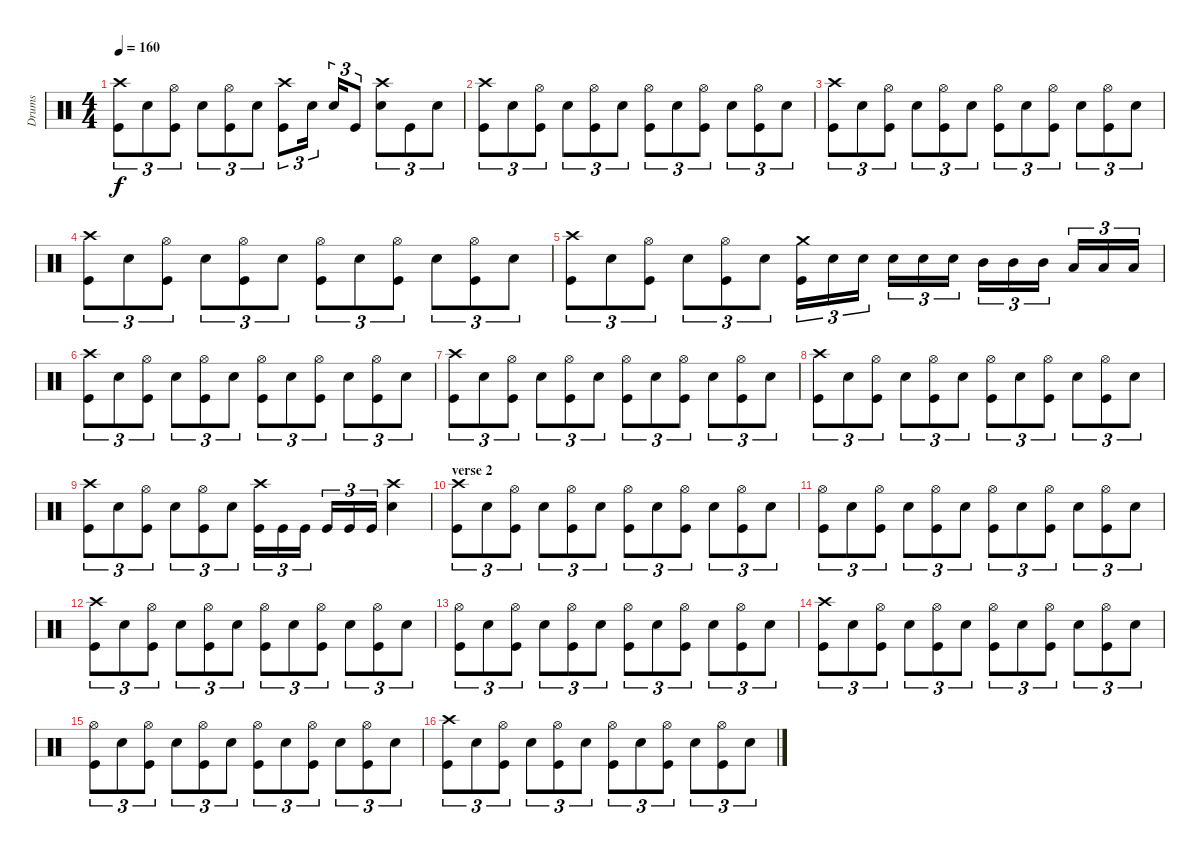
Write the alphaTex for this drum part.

\track ("Drums" "Drums") {instrument percussion}
\staff {score}
\articulation defaults
\ts (4 4)
\tempo 160
\clef neutral
\ks c
("Crash high (hit)" "Kick (hit)").8{tu (3 2) dy f} "Electric Snare (hit)".8{tu (3 2)} ("Hi-Hat (open)" "Kick (hit)").8{tu (3 2)} "Electric Snare (hit)".8{tu (3 2)} ("Hi-Hat (open)" "Kick (hit)").8{tu (3 2)} "Electric Snare (hit)".8{tu (3 2)} ("Crash high (hit)" "Kick (hit)").8{tu (3 2)} "Electric Snare (hit)".16{tu (3 2)} "Electric Snare (hit)".16{tu (3 2)} "Kick (hit)".8{tu (3 2)} ("Crash high (hit)" "Electric Snare (hit)").8{tu (3 2)} "Kick (hit)".8{tu (3 2)} "Electric Snare (hit)".8{tu (3 2)} |
("Crash high (hit)" "Kick (hit)").8{tu (3 2)} "Electric Snare (hit)".8{tu (3 2)} ("Hi-Hat (open)" "Kick (hit)").8{tu (3 2)} "Electric Snare (hit)".8{tu (3 2)} ("Hi-Hat (open)" "Kick (hit)").8{tu (3 2)} "Electric Snare (hit)".8{tu (3 2)} ("Hi-Hat (open)" "Kick (hit)").8{tu (3 2)} "Electric Snare (hit)".8{tu (3 2)} ("Hi-Hat (open)" "Kick (hit)").8{tu (3 2)} "Electric Snare (hit)".8{tu (3 2)} ("Hi-Hat (open)" "Kick (hit)").8{tu (3 2)} "Electric Snare (hit)".8{tu (3 2)} |
("Crash high (hit)" "Kick (hit)").8{tu (3 2)} "Electric Snare (hit)".8{tu (3 2)} ("Hi-Hat (open)" "Kick (hit)").8{tu (3 2)} "Electric Snare (hit)".8{tu (3 2)} ("Hi-Hat (open)" "Kick (hit)").8{tu (3 2)} "Electric Snare (hit)".8{tu (3 2)} ("Hi-Hat (open)" "Kick (hit)").8{tu (3 2)} "Electric Snare (hit)".8{tu (3 2)} ("Hi-Hat (open)" "Kick (hit)").8{tu (3 2)} "Electric Snare (hit)".8{tu (3 2)} ("Hi-Hat (open)" "Kick (hit)").8{tu (3 2)} "Electric Snare (hit)".8{tu (3 2)} |
("Crash high (hit)" "Kick (hit)").8{tu (3 2)} "Electric Snare (hit)".8{tu (3 2)} ("Hi-Hat (open)" "Kick (hit)").8{tu (3 2)} "Electric Snare (hit)".8{tu (3 2)} ("Hi-Hat (open)" "Kick (hit)").8{tu (3 2)} "Electric Snare (hit)".8{tu (3 2)} ("Hi-Hat (open)" "Kick (hit)").8{tu (3 2)} "Electric Snare (hit)".8{tu (3 2)} ("Hi-Hat (open)" "Kick (hit)").8{tu (3 2)} "Electric Snare (hit)".8{tu (3 2)} ("Hi-Hat (open)" "Kick (hit)").8{tu (3 2)} "Electric Snare (hit)".8{tu (3 2)} |
("Crash high (hit)" "Kick (hit)").8{tu (3 2)} "Electric Snare (hit)".8{tu (3 2)} ("Hi-Hat (open)" "Kick (hit)").8{tu (3 2)} "Electric Snare (hit)".8{tu (3 2)} ("Hi-Hat (open)" "Kick (hit)").8{tu (3 2)} "Electric Snare (hit)".8{tu (3 2)} ("Crash medium (hit)" "Kick (hit)").16{tu (3 2)} "Electric Snare (hit)".16{tu (3 2)} "Electric Snare (hit)".16{tu (3 2)} "Electric Snare (hit)".16{tu (3 2)} "Electric Snare (hit)".16{tu (3 2)} "Electric Snare (hit)".16{tu (3 2)} "Mid Tom (hit)".16{tu (3 2)} "Mid Tom (hit)".16{tu (3 2)} "Mid Tom (hit)".16{tu (3 2)} "Low Tom (hit)".16{tu (3 2)} "Low Tom (hit)".16{tu (3 2)} "Low Tom (hit)".16{tu (3 2)} |
("Crash high (hit)" "Kick (hit)").8{tu (3 2)} "Electric Snare (hit)".8{tu (3 2)} ("Hi-Hat (open)" "Kick (hit)").8{tu (3 2)} "Electric Snare (hit)".8{tu (3 2)} ("Hi-Hat (open)" "Kick (hit)").8{tu (3 2)} "Electric Snare (hit)".8{tu (3 2)} ("Hi-Hat (open)" "Kick (hit)").8{tu (3 2)} "Electric Snare (hit)".8{tu (3 2)} ("Hi-Hat (open)" "Kick (hit)").8{tu (3 2)} "Electric Snare (hit)".8{tu (3 2)} ("Hi-Hat (open)" "Kick (hit)").8{tu (3 2)} "Electric Snare (hit)".8{tu (3 2)} |
("Crash high (hit)" "Kick (hit)").8{tu (3 2)} "Electric Snare (hit)".8{tu (3 2)} ("Hi-Hat (open)" "Kick (hit)").8{tu (3 2)} "Electric Snare (hit)".8{tu (3 2)} ("Hi-Hat (open)" "Kick (hit)").8{tu (3 2)} "Electric Snare (hit)".8{tu (3 2)} ("Hi-Hat (open)" "Kick (hit)").8{tu (3 2)} "Electric Snare (hit)".8{tu (3 2)} ("Hi-Hat (open)" "Kick (hit)").8{tu (3 2)} "Electric Snare (hit)".8{tu (3 2)} ("Hi-Hat (open)" "Kick (hit)").8{tu (3 2)} "Electric Snare (hit)".8{tu (3 2)} |
("Crash high (hit)" "Kick (hit)").8{tu (3 2)} "Electric Snare (hit)".8{tu (3 2)} ("Hi-Hat (open)" "Kick (hit)").8{tu (3 2)} "Electric Snare (hit)".8{tu (3 2)} ("Hi-Hat (open)" "Kick (hit)").8{tu (3 2)} "Electric Snare (hit)".8{tu (3 2)} ("Hi-Hat (open)" "Kick (hit)").8{tu (3 2)} "Electric Snare (hit)".8{tu (3 2)} ("Hi-Hat (open)" "Kick (hit)").8{tu (3 2)} "Electric Snare (hit)".8{tu (3 2)} ("Hi-Hat (open)" "Kick (hit)").8{tu (3 2)} "Electric Snare (hit)".8{tu (3 2)} |
("Crash high (hit)" "Kick (hit)").8{tu (3 2)} "Electric Snare (hit)".8{tu (3 2)} ("Hi-Hat (open)" "Kick (hit)").8{tu (3 2)} "Electric Snare (hit)".8{tu (3 2)} ("Hi-Hat (open)" "Kick (hit)").8{tu (3 2)} "Electric Snare (hit)".8{tu (3 2)} ("Crash high (hit)" "Kick (hit)").16{tu (3 2)} "Kick (hit)".16{tu (3 2)} "Kick (hit)".16{tu (3 2)} "Kick (hit)".16{tu (3 2)} "Kick (hit)".16{tu (3 2)} "Kick (hit)".16{tu (3 2)} ("Crash high (hit)" "Electric Snare (hit)").4 |
\section ("" "verse 2")
("Crash high (hit)" "Kick (hit)").8{tu (3 2)} "Electric Snare (hit)".8{tu (3 2)} ("Hi-Hat (open)" "Kick (hit)").8{tu (3 2)} "Electric Snare (hit)".8{tu (3 2)} ("Hi-Hat (open)" "Kick (hit)").8{tu (3 2)} "Electric Snare (hit)".8{tu (3 2)} ("Hi-Hat (open)" "Kick (hit)").8{tu (3 2)} "Electric Snare (hit)".8{tu (3 2)} ("Hi-Hat (open)" "Kick (hit)").8{tu (3 2)} "Electric Snare (hit)".8{tu (3 2)} ("Hi-Hat (open)" "Kick (hit)").8{tu (3 2)} "Electric Snare (hit)".8{tu (3 2)} |
("Hi-Hat (open)" "Kick (hit)").8{tu (3 2)} "Electric Snare (hit)".8{tu (3 2)} ("Hi-Hat (open)" "Kick (hit)").8{tu (3 2)} "Electric Snare (hit)".8{tu (3 2)} ("Hi-Hat (open)" "Kick (hit)").8{tu (3 2)} "Electric Snare (hit)".8{tu (3 2)} ("Hi-Hat (open)" "Kick (hit)").8{tu (3 2)} "Electric Snare (hit)".8{tu (3 2)} ("Hi-Hat (open)" "Kick (hit)").8{tu (3 2)} "Electric Snare (hit)".8{tu (3 2)} ("Hi-Hat (open)" "Kick (hit)").8{tu (3 2)} "Electric Snare (hit)".8{tu (3 2)} |
("Crash high (hit)" "Kick (hit)").8{tu (3 2)} "Electric Snare (hit)".8{tu (3 2)} ("Hi-Hat (open)" "Kick (hit)").8{tu (3 2)} "Electric Snare (hit)".8{tu (3 2)} ("Hi-Hat (open)" "Kick (hit)").8{tu (3 2)} "Electric Snare (hit)".8{tu (3 2)} ("Hi-Hat (open)" "Kick (hit)").8{tu (3 2)} "Electric Snare (hit)".8{tu (3 2)} ("Hi-Hat (open)" "Kick (hit)").8{tu (3 2)} "Electric Snare (hit)".8{tu (3 2)} ("Hi-Hat (open)" "Kick (hit)").8{tu (3 2)} "Electric Snare (hit)".8{tu (3 2)} |
("Hi-Hat (open)" "Kick (hit)").8{tu (3 2)} "Electric Snare (hit)".8{tu (3 2)} ("Hi-Hat (open)" "Kick (hit)").8{tu (3 2)} "Electric Snare (hit)".8{tu (3 2)} ("Hi-Hat (open)" "Kick (hit)").8{tu (3 2)} "Electric Snare (hit)".8{tu (3 2)} ("Hi-Hat (open)" "Kick (hit)").8{tu (3 2)} "Electric Snare (hit)".8{tu (3 2)} ("Hi-Hat (open)" "Kick (hit)").8{tu (3 2)} "Electric Snare (hit)".8{tu (3 2)} ("Hi-Hat (open)" "Kick (hit)").8{tu (3 2)} "Electric Snare (hit)".8{tu (3 2)} |
("Crash high (hit)" "Kick (hit)").8{tu (3 2)} "Electric Snare (hit)".8{tu (3 2)} ("Hi-Hat (open)" "Kick (hit)").8{tu (3 2)} "Electric Snare (hit)".8{tu (3 2)} ("Hi-Hat (open)" "Kick (hit)").8{tu (3 2)} "Electric Snare (hit)".8{tu (3 2)} ("Hi-Hat (open)" "Kick (hit)").8{tu (3 2)} "Electric Snare (hit)".8{tu (3 2)} ("Hi-Hat (open)" "Kick (hit)").8{tu (3 2)} "Electric Snare (hit)".8{tu (3 2)} ("Hi-Hat (open)" "Kick (hit)").8{tu (3 2)} "Electric Snare (hit)".8{tu (3 2)} |
("Hi-Hat (open)" "Kick (hit)").8{tu (3 2)} "Electric Snare (hit)".8{tu (3 2)} ("Hi-Hat (open)" "Kick (hit)").8{tu (3 2)} "Electric Snare (hit)".8{tu (3 2)} ("Hi-Hat (open)" "Kick (hit)").8{tu (3 2)} "Electric Snare (hit)".8{tu (3 2)} ("Hi-Hat (open)" "Kick (hit)").8{tu (3 2)} "Electric Snare (hit)".8{tu (3 2)} ("Hi-Hat (open)" "Kick (hit)").8{tu (3 2)} "Electric Snare (hit)".8{tu (3 2)} ("Hi-Hat (open)" "Kick (hit)").8{tu (3 2)} "Electric Snare (hit)".8{tu (3 2)} |
("Crash high (hit)" "Kick (hit)").8{tu (3 2)} "Electric Snare (hit)".8{tu (3 2)} ("Hi-Hat (open)" "Kick (hit)").8{tu (3 2)} "Electric Snare (hit)".8{tu (3 2)} ("Hi-Hat (open)" "Kick (hit)").8{tu (3 2)} "Electric Snare (hit)".8{tu (3 2)} ("Hi-Hat (open)" "Kick (hit)").8{tu (3 2)} "Electric Snare (hit)".8{tu (3 2)} ("Hi-Hat (open)" "Kick (hit)").8{tu (3 2)} "Electric Snare (hit)".8{tu (3 2)} ("Hi-Hat (open)" "Kick (hit)").8{tu (3 2)} "Electric Snare (hit)".8{tu (3 2)}
